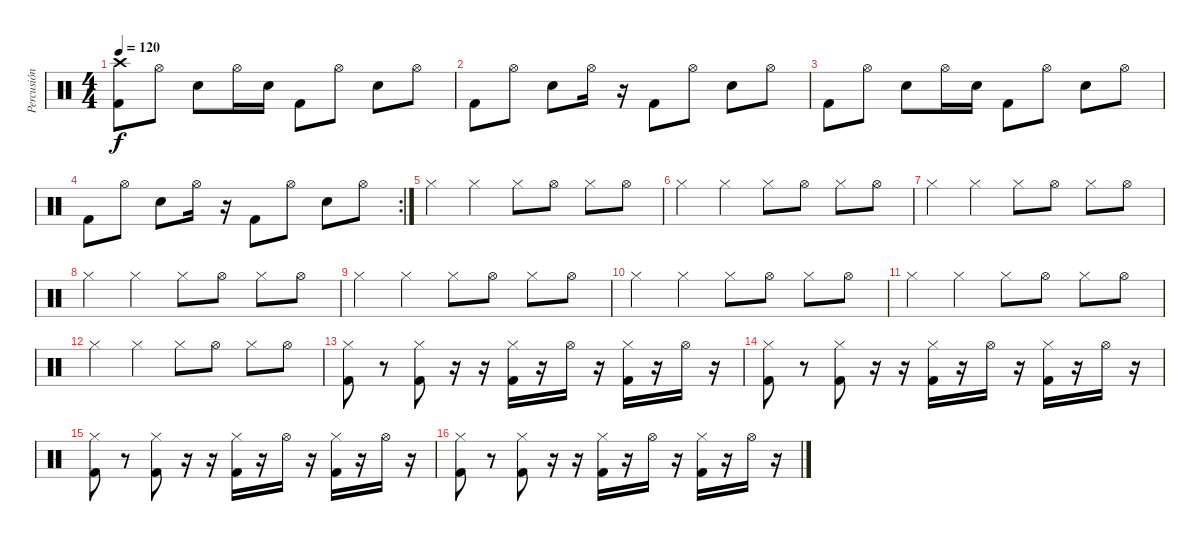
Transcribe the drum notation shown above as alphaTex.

\track ("Percusión" "Percusión") {instrument percussion}
\staff {score}
\articulation defaults
\ts (4 4)
\tempo 120
\clef neutral
\ks c
("Crash high (hit)" "Kick (hit) 2").8{dy f} "Hi-Hat (open)".8 "Snare (hit) 2".8 "Hi-Hat (open)".16 "Snare (hit) 2".16 "Kick (hit) 2".8 "Hi-Hat (open)".8 "Snare (hit) 2".8 "Hi-Hat (open)".8 |
"Kick (hit) 2".8 "Hi-Hat (open)".8 "Snare (hit) 2".8 "Hi-Hat (open)".16 r.16 "Kick (hit) 2".8 "Hi-Hat (open)".8 "Snare (hit) 2".8 "Hi-Hat (open)".8 |
"Kick (hit) 2".8 "Hi-Hat (open)".8 "Snare (hit) 2".8 "Hi-Hat (open)".16 "Snare (hit) 2".16 "Kick (hit) 2".8 "Hi-Hat (open)".8 "Snare (hit) 2".8 "Hi-Hat (open)".8 |
\rc 2 "Kick (hit) 2".8 "Hi-Hat (open)".8 "Snare (hit) 2".8 "Hi-Hat (open)".16
r.16 "Kick (hit) 2".8 "Hi-Hat (open)".8 "Snare (hit) 2".8 "Hi-Hat (open)".8 |
"Hi-Hat (closed)".4 "Hi-Hat (closed)".4 "Hi-Hat (closed)".8 "Hi-Hat (open)".8 "Hi-Hat (closed)".8 "Hi-Hat (open)".8 |
"Hi-Hat (closed)".4 "Hi-Hat (closed)".4 "Hi-Hat (closed)".8 "Hi-Hat (open)".8 "Hi-Hat (closed)".8 "Hi-Hat (open)".8 |
"Hi-Hat (closed)".4 "Hi-Hat (closed)".4 "Hi-Hat (closed)".8 "Hi-Hat (open)".8 "Hi-Hat (closed)".8 "Hi-Hat (open)".8 |
"Hi-Hat (closed)".4 "Hi-Hat (closed)".4 "Hi-Hat (closed)".8 "Hi-Hat (open)".8 "Hi-Hat (closed)".8 "Hi-Hat (open)".8 |
"Hi-Hat (closed)".4 "Hi-Hat (closed)".4 "Hi-Hat (closed)".8 "Hi-Hat (open)".8 "Hi-Hat (closed)".8 "Hi-Hat (open)".8 |
"Hi-Hat (closed)".4 "Hi-Hat (closed)".4 "Hi-Hat (closed)".8 "Hi-Hat (open)".8 "Hi-Hat (closed)".8 "Hi-Hat (open)".8 |
"Hi-Hat (closed)".4 "Hi-Hat (closed)".4 "Hi-Hat (closed)".8 "Hi-Hat (open)".8 "Hi-Hat (closed)".8 "Hi-Hat (open)".8 |
"Hi-Hat (closed)".4 "Hi-Hat (closed)".4 "Hi-Hat (closed)".8 "Hi-Hat (open)".8 "Hi-Hat (closed)".8 "Hi-Hat (open)".8 |
("Hi-Hat (closed)" "Kick (hit) 2").8 r.8 ("Hi-Hat (closed)" "Kick (hit) 2").8 r.16 r.16 ("Hi-Hat (closed)" "Kick (hit) 2").16 r.16 "Hi-Hat (open)".16 r.16 ("Hi-Hat (closed)" "Kick (hit) 2").16 r.16 "Hi-Hat (open)".16 r.16 |
("Hi-Hat (closed)" "Kick (hit) 2").8 r.8 ("Hi-Hat (closed)" "Kick (hit) 2").8 r.16 r.16 ("Hi-Hat (closed)" "Kick (hit) 2").16 r.16 "Hi-Hat (open)".16 r.16 ("Hi-Hat (closed)" "Kick (hit) 2").16 r.16 "Hi-Hat (open)".16 r.16 |
("Hi-Hat (closed)" "Kick (hit) 2").8 r.8 ("Hi-Hat (closed)" "Kick (hit) 2").8 r.16 r.16 ("Hi-Hat (closed)" "Kick (hit) 2").16 r.16 "Hi-Hat (open)".16 r.16 ("Hi-Hat (closed)" "Kick (hit) 2").16 r.16 "Hi-Hat (open)".16 r.16 |
("Hi-Hat (closed)" "Kick (hit) 2").8 r.8 ("Hi-Hat (closed)" "Kick (hit) 2").8 r.16 r.16 ("Hi-Hat (closed)" "Kick (hit) 2").16 r.16 "Hi-Hat (open)".16 r.16 ("Hi-Hat (closed)" "Kick (hit) 2").16 r.16 "Hi-Hat (open)".16 r.16
